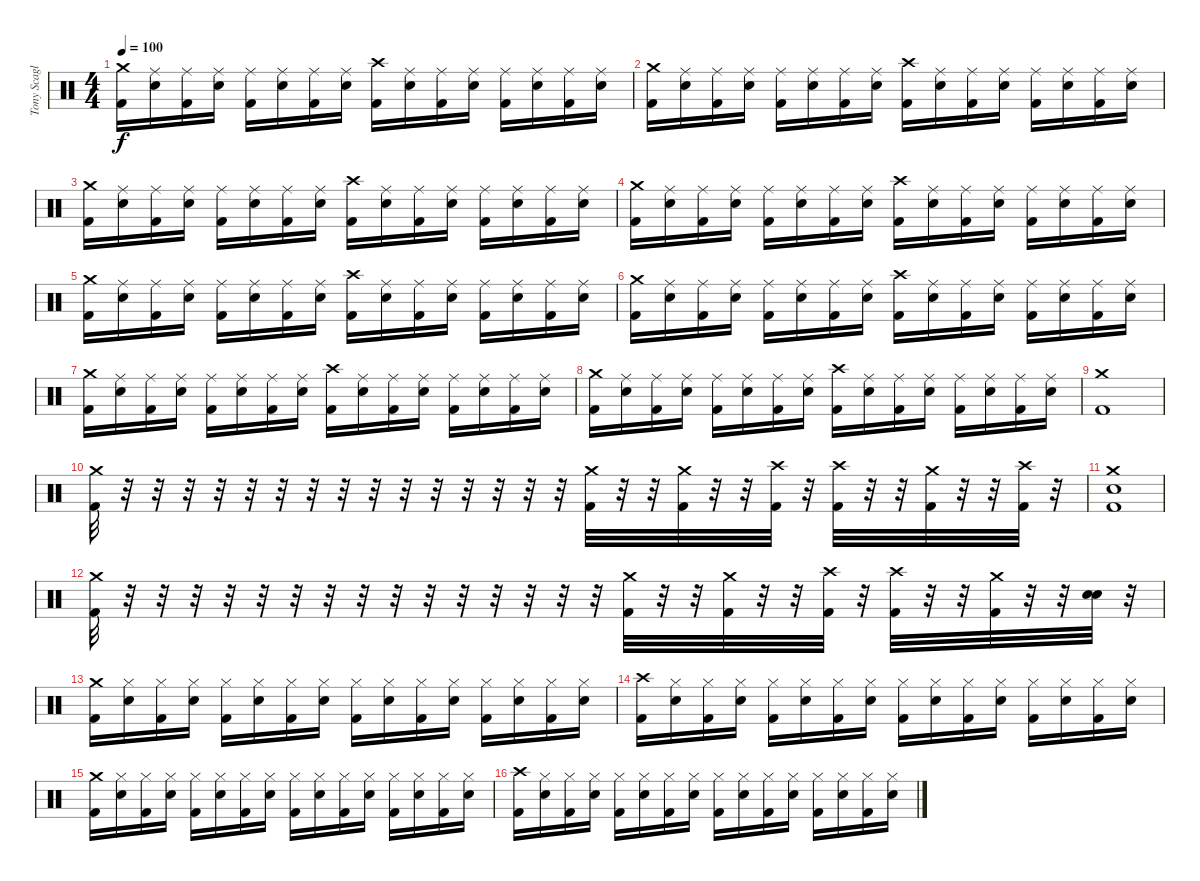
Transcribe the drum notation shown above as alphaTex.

\track ("Tony Scaglione" "Tony Scagl") {instrument percussion}
\staff {score}
\articulation defaults
\ts (4 4)
\tempo 100
\clef neutral
\ks c
("Crash medium (hit)" "Kick (hit) 2").16{dy f} ("Ride (middle)" "Snare (hit) 2").16 ("Ride (middle)" "Kick (hit) 2").16 ("Ride (middle)" "Snare (hit) 2").16 ("Ride (middle)" "Kick (hit) 2").16 ("Ride (middle)" "Snare (hit) 2").16 ("Ride (middle)" "Kick (hit) 2").16 ("Ride (middle)" "Snare (hit) 2").16 ("Crash high (hit)" "Kick (hit) 2").16 ("Ride (middle)" "Snare (hit) 2").16 ("Ride (middle)" "Kick (hit) 2").16 ("Ride (middle)" "Snare (hit) 2").16 ("Ride (middle)" "Kick (hit) 2").16 ("Ride (middle)" "Snare (hit) 2").16 ("Ride (middle)" "Kick (hit) 2").16 ("Ride (middle)" "Snare (hit) 2").16 |
("Crash medium (hit)" "Kick (hit) 2").16 ("Ride (middle)" "Snare (hit) 2").16 ("Ride (middle)" "Kick (hit) 2").16 ("Ride (middle)" "Snare (hit) 2").16 ("Ride (middle)" "Kick (hit) 2").16 ("Ride (middle)" "Snare (hit) 2").16 ("Ride (middle)" "Kick (hit) 2").16 ("Ride (middle)" "Snare (hit) 2").16 ("Crash high (hit)" "Kick (hit) 2").16 ("Ride (middle)" "Snare (hit) 2").16 ("Ride (middle)" "Kick (hit) 2").16 ("Ride (middle)" "Snare (hit) 2").16 ("Ride (middle)" "Kick (hit) 2").16 ("Ride (middle)" "Snare (hit) 2").16 ("Ride (middle)" "Kick (hit) 2").16 ("Ride (middle)" "Snare (hit) 2").16 |
("Crash medium (hit)" "Kick (hit) 2").16 ("Ride (middle)" "Snare (hit) 2").16 ("Ride (middle)" "Kick (hit) 2").16 ("Ride (middle)" "Snare (hit) 2").16 ("Ride (middle)" "Kick (hit) 2").16 ("Ride (middle)" "Snare (hit) 2").16 ("Ride (middle)" "Kick (hit) 2").16 ("Ride (middle)" "Snare (hit) 2").16 ("Crash high (hit)" "Kick (hit) 2").16 ("Ride (middle)" "Snare (hit) 2").16 ("Ride (middle)" "Kick (hit) 2").16 ("Ride (middle)" "Snare (hit) 2").16 ("Ride (middle)" "Kick (hit) 2").16 ("Ride (middle)" "Snare (hit) 2").16 ("Ride (middle)" "Kick (hit) 2").16 ("Ride (middle)" "Snare (hit) 2").16 |
("Crash medium (hit)" "Kick (hit) 2").16 ("Ride (middle)" "Snare (hit) 2").16 ("Ride (middle)" "Kick (hit) 2").16 ("Ride (middle)" "Snare (hit) 2").16 ("Ride (middle)" "Kick (hit) 2").16 ("Ride (middle)" "Snare (hit) 2").16 ("Ride (middle)" "Kick (hit) 2").16 ("Ride (middle)" "Snare (hit) 2").16 ("Crash high (hit)" "Kick (hit) 2").16 ("Ride (middle)" "Snare (hit) 2").16 ("Ride (middle)" "Kick (hit) 2").16 ("Ride (middle)" "Snare (hit) 2").16 ("Ride (middle)" "Kick (hit) 2").16 ("Ride (middle)" "Snare (hit) 2").16 ("Ride (middle)" "Kick (hit) 2").16 ("Ride (middle)" "Snare (hit) 2").16 |
("Crash medium (hit)" "Kick (hit) 2").16 ("Ride (middle)" "Snare (hit) 2").16 ("Ride (middle)" "Kick (hit) 2").16 ("Ride (middle)" "Snare (hit) 2").16 ("Ride (middle)" "Kick (hit) 2").16 ("Ride (middle)" "Snare (hit) 2").16 ("Ride (middle)" "Kick (hit) 2").16 ("Ride (middle)" "Snare (hit) 2").16 ("Crash high (hit)" "Kick (hit) 2").16 ("Ride (middle)" "Snare (hit) 2").16 ("Ride (middle)" "Kick (hit) 2").16 ("Ride (middle)" "Snare (hit) 2").16 ("Ride (middle)" "Kick (hit) 2").16 ("Ride (middle)" "Snare (hit) 2").16 ("Ride (middle)" "Kick (hit) 2").16 ("Ride (middle)" "Snare (hit) 2").16 |
("Crash medium (hit)" "Kick (hit) 2").16 ("Ride (middle)" "Snare (hit) 2").16 ("Ride (middle)" "Kick (hit) 2").16 ("Ride (middle)" "Snare (hit) 2").16 ("Ride (middle)" "Kick (hit) 2").16 ("Ride (middle)" "Snare (hit) 2").16 ("Ride (middle)" "Kick (hit) 2").16 ("Ride (middle)" "Snare (hit) 2").16 ("Crash high (hit)" "Kick (hit) 2").16 ("Ride (middle)" "Snare (hit) 2").16 ("Ride (middle)" "Kick (hit) 2").16 ("Ride (middle)" "Snare (hit) 2").16 ("Ride (middle)" "Kick (hit) 2").16 ("Ride (middle)" "Snare (hit) 2").16 ("Ride (middle)" "Kick (hit) 2").16 ("Ride (middle)" "Snare (hit) 2").16 |
("Crash medium (hit)" "Kick (hit) 2").16 ("Ride (middle)" "Snare (hit) 2").16 ("Ride (middle)" "Kick (hit) 2").16 ("Ride (middle)" "Snare (hit) 2").16 ("Ride (middle)" "Kick (hit) 2").16 ("Ride (middle)" "Snare (hit) 2").16 ("Ride (middle)" "Kick (hit) 2").16 ("Ride (middle)" "Snare (hit) 2").16 ("Crash high (hit)" "Kick (hit) 2").16 ("Ride (middle)" "Snare (hit) 2").16 ("Ride (middle)" "Kick (hit) 2").16 ("Ride (middle)" "Snare (hit) 2").16 ("Ride (middle)" "Kick (hit) 2").16 ("Ride (middle)" "Snare (hit) 2").16 ("Ride (middle)" "Kick (hit) 2").16 ("Ride (middle)" "Snare (hit) 2").16 |
("Crash medium (hit)" "Kick (hit) 2").16 ("Ride (middle)" "Snare (hit) 2").16 ("Ride (middle)" "Kick (hit) 2").16 ("Ride (middle)" "Snare (hit) 2").16 ("Ride (middle)" "Kick (hit) 2").16 ("Ride (middle)" "Snare (hit) 2").16 ("Ride (middle)" "Kick (hit) 2").16 ("Ride (middle)" "Snare (hit) 2").16 ("Crash high (hit)" "Kick (hit) 2").16 ("Ride (middle)" "Snare (hit) 2").16 ("Ride (middle)" "Kick (hit) 2").16 ("Ride (middle)" "Snare (hit) 2").16 ("Ride (middle)" "Kick (hit) 2").16 ("Ride (middle)" "Snare (hit) 2").16 ("Ride (middle)" "Kick (hit) 2").16 ("Ride (middle)" "Snare (hit) 2").16 |
("Crash medium (hit)" "Kick (hit) 2").1 |
("Crash medium (hit)" "Kick (hit) 2").32 r.32 r.32 r.32 r.32 r.32 r.32 r.32 r.32 r.32 r.32 r.32 r.32 r.32 r.32 r.32 ("Crash medium (hit)" "Kick (hit) 2").32 r.32 r.32 ("Crash medium (hit)" "Kick (hit) 2").32 r.32 r.32 ("Crash high (hit)" "Kick (hit) 2").32 r.32 ("Crash high (hit)" "Kick (hit) 2").32 r.32 r.32 ("Crash medium (hit)" "Kick (hit) 2").32 r.32 r.32 ("Crash high (hit)" "Kick (hit) 2").32 r.32 |
("Snare (hit) 2" "Crash medium (hit)" "Kick (hit) 2").1 |
("Crash medium (hit)" "Kick (hit) 2").32 r.32 r.32 r.32 r.32 r.32 r.32 r.32 r.32 r.32 r.32 r.32 r.32 r.32 r.32 r.32 ("Crash medium (hit)" "Kick (hit) 2").32 r.32 r.32 ("Crash medium (hit)" "Kick (hit) 2").32 r.32 r.32 ("Crash high (hit)" "Kick (hit) 2").32 r.32 ("Crash high (hit)" "Kick (hit) 2").32 r.32 r.32 ("Crash medium (hit)" "Kick (hit) 2").32 r.32 r.32 ("Electric Snare (hit)" "Snare (hit) 2").32 r.32 |
("Crash medium (hit)" "Kick (hit) 2").16 ("Hi-Hat (closed)" "Snare (hit) 2").16 ("Hi-Hat (closed)" "Kick (hit) 2").16 ("Hi-Hat (closed)" "Snare (hit) 2").16 ("Hi-Hat (closed)" "Kick (hit) 2").16 ("Hi-Hat (closed)" "Snare (hit) 2").16 ("Hi-Hat (closed)" "Kick (hit) 2").16 ("Hi-Hat (closed)" "Snare (hit) 2").16 ("Hi-Hat (closed)" "Kick (hit) 2").16 ("Hi-Hat (closed)" "Snare (hit) 2").16 ("Hi-Hat (closed)" "Kick (hit) 2").16 ("Hi-Hat (closed)" "Snare (hit) 2").16 ("Hi-Hat (closed)" "Kick (hit) 2").16 ("Hi-Hat (closed)" "Snare (hit) 2").16 ("Hi-Hat (closed)" "Kick (hit) 2").16 ("Hi-Hat (closed)" "Snare (hit) 2").16 |
("Crash high (hit)" "Kick (hit) 2").16 ("Hi-Hat (closed)" "Snare (hit) 2").16 ("Hi-Hat (closed)" "Kick (hit) 2").16 ("Hi-Hat (closed)" "Snare (hit) 2").16 ("Hi-Hat (closed)" "Kick (hit) 2").16 ("Hi-Hat (closed)" "Snare (hit) 2").16 ("Hi-Hat (closed)" "Kick (hit) 2").16 ("Hi-Hat (closed)" "Snare (hit) 2").16 ("Hi-Hat (closed)" "Kick (hit) 2").16 ("Hi-Hat (closed)" "Snare (hit) 2").16 ("Hi-Hat (closed)" "Kick (hit) 2").16 ("Hi-Hat (closed)" "Snare (hit) 2").16 ("Hi-Hat (closed)" "Kick (hit) 2").16 ("Hi-Hat (closed)" "Snare (hit) 2").16 ("Hi-Hat (closed)" "Kick (hit) 2").16 ("Hi-Hat (closed)" "Snare (hit) 2").16 |
("Crash medium (hit)" "Kick (hit) 2").16 ("Hi-Hat (closed)" "Snare (hit) 2").16 ("Hi-Hat (closed)" "Kick (hit) 2").16 ("Hi-Hat (closed)" "Snare (hit) 2").16 ("Hi-Hat (closed)" "Kick (hit) 2").16 ("Hi-Hat (closed)" "Snare (hit) 2").16 ("Hi-Hat (closed)" "Kick (hit) 2").16 ("Hi-Hat (closed)" "Snare (hit) 2").16 ("Hi-Hat (closed)" "Kick (hit) 2").16 ("Hi-Hat (closed)" "Snare (hit) 2").16 ("Hi-Hat (closed)" "Kick (hit) 2").16 ("Hi-Hat (closed)" "Snare (hit) 2").16 ("Hi-Hat (closed)" "Kick (hit) 2").16 ("Hi-Hat (closed)" "Snare (hit) 2").16 ("Hi-Hat (closed)" "Kick (hit) 2").16 ("Hi-Hat (closed)" "Snare (hit) 2").16 |
("Crash high (hit)" "Kick (hit) 2").16 ("Hi-Hat (closed)" "Snare (hit) 2").16 ("Hi-Hat (closed)" "Kick (hit) 2").16 ("Hi-Hat (closed)" "Snare (hit) 2").16 ("Hi-Hat (closed)" "Kick (hit) 2").16 ("Hi-Hat (closed)" "Snare (hit) 2").16 ("Hi-Hat (closed)" "Kick (hit) 2").16 ("Hi-Hat (closed)" "Snare (hit) 2").16 ("Hi-Hat (closed)" "Kick (hit) 2").16 ("Hi-Hat (closed)" "Snare (hit) 2").16 ("Hi-Hat (closed)" "Kick (hit) 2").16 ("Hi-Hat (closed)" "Snare (hit) 2").16 ("Hi-Hat (closed)" "Kick (hit) 2").16 ("Hi-Hat (closed)" "Snare (hit) 2").16 ("Hi-Hat (closed)" "Kick (hit) 2").16 ("Hi-Hat (closed)" "Snare (hit) 2").16
